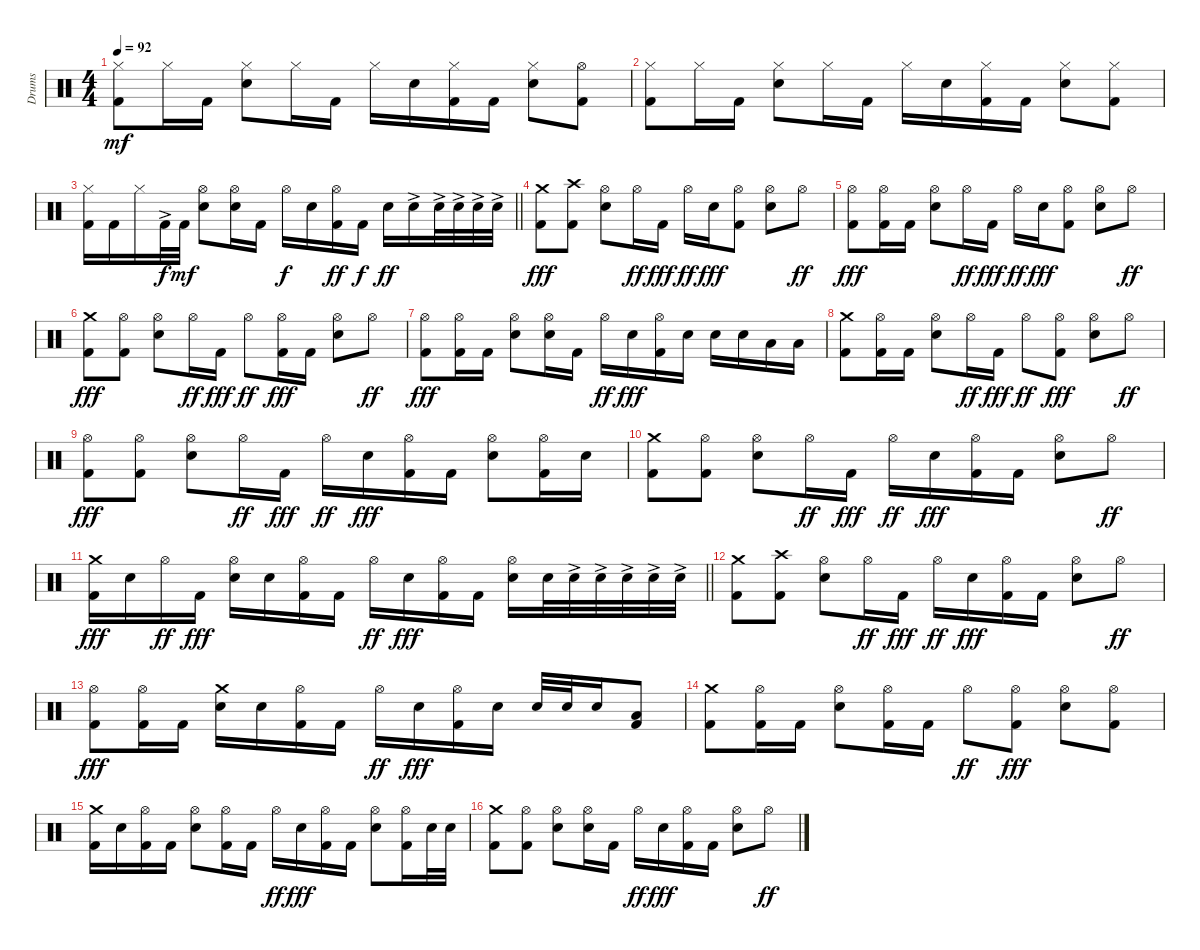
\track ("Drums" "Drums") {instrument percussion}
\staff {score}
\articulation defaults
\ts (4 4)
\tempo 92
\clef neutral
\ks c
("Hi-Hat (closed)" "Kick (hit) 2").8{dy mf} "Hi-Hat (closed)".16 "Kick (hit) 2".16 ("Hi-Hat (closed)" "Snare (hit) 2").8 "Hi-Hat (closed)".16 "Kick (hit) 2".16 "Hi-Hat (closed)".16 "Snare (hit) 2".16 ("Hi-Hat (closed)" "Kick (hit) 2").16 "Kick (hit) 2".16 ("Hi-Hat (closed)" "Snare (hit) 2").8 ("Hi-Hat (open)" "Kick (hit) 2").8 |
("Hi-Hat (closed)" "Kick (hit) 2").8 "Hi-Hat (closed)".16 "Kick (hit) 2".16 ("Hi-Hat (closed)" "Snare (hit) 2").8 "Hi-Hat (closed)".16 "Kick (hit) 2".16 "Hi-Hat (closed)".16 "Snare (hit) 2".16 ("Hi-Hat (closed)" "Kick (hit) 2").16 "Kick (hit) 2".16 ("Hi-Hat (closed)" "Snare (hit) 2").8 ("Hi-Hat (closed)" "Kick (hit) 2").8 |
\barLineRight lightlight
("Hi-Hat (closed)" "Kick (hit) 2").16 "Kick (hit) 2".16 "Hi-Hat (closed)".16 "Kick (hit) 2"{ac}.32{dy f} "Kick (hit) 2".32{dy mf} ("Hi-Hat (open)" "Snare (hit) 2").8 ("Hi-Hat (open)" "Snare (hit) 2").16 "Kick (hit) 2".16 "Hi-Hat (open)".16{dy f} "Snare (hit) 2".16 ("Hi-Hat (open)" "Kick (hit) 2").16{dy ff} "Kick (hit) 2".16{dy f} "Snare (hit) 2".16{dy ff} "Snare (hit) 2"{ac}.16 "Snare (hit) 2"{ac}.32 "Snare (hit) 2"{ac}.32 "Snare (hit) 2"{ac}.32 "Snare (hit) 2"{ac}.32 |
\section ("" "")
("Crash medium (hit)" "Kick (hit) 2").8{dy fff} ("Crash high (hit)" "Kick (hit) 2").8 ("Hi-Hat (open)" "Snare (hit) 2").8 "Hi-Hat (open)".16{dy ff} "Kick (hit) 2".16{dy fff} "Hi-Hat (open)".16{dy ff} "Snare (hit) 2".16{dy fff} ("Hi-Hat (open)" "Kick (hit) 2").8 ("Hi-Hat (open)" "Snare (hit) 2").8 "Hi-Hat (open)".8{dy ff} |
("Hi-Hat (open)" "Kick (hit) 2").8{dy fff} ("Hi-Hat (open)" "Kick (hit) 2").16 "Kick (hit) 2".16 ("Hi-Hat (open)" "Snare (hit) 2").8 "Hi-Hat (open)".16{dy ff} "Kick (hit) 2".16{dy fff} "Hi-Hat (open)".16{dy ff} "Snare (hit) 2".16{dy fff} ("Hi-Hat (open)" "Kick (hit) 2").8 ("Hi-Hat (open)" "Snare (hit) 2").8 "Hi-Hat (open)".8{dy ff} |
("Crash medium (hit)" "Kick (hit) 2").8{dy fff} ("Hi-Hat (open)" "Kick (hit) 2").8 ("Hi-Hat (open)" "Snare (hit) 2").8 "Hi-Hat (open)".16{dy ff} "Kick (hit) 2".16{dy fff} "Hi-Hat (open)".8{dy ff} ("Hi-Hat (open)" "Kick (hit) 2").16{dy fff} "Kick (hit) 2".16 ("Hi-Hat (open)" "Snare (hit) 2").8 "Hi-Hat (open)".8{dy ff} |
("Hi-Hat (open)" "Kick (hit) 2").8{dy fff} ("Hi-Hat (open)" "Kick (hit) 2").16 "Kick (hit) 2".16 ("Hi-Hat (open)" "Snare (hit) 2").8 ("Hi-Hat (open)" "Snare (hit) 2").16 "Kick (hit) 2".16 "Hi-Hat (open)".16{dy ff} "Snare (hit) 2".16{dy fff} ("Hi-Hat (open)" "Kick (hit) 2").16 "Snare (hit) 2".16 "Snare (hit) 2".16 "Snare (hit) 2".16 "Low Tom (hit)".16 "Low Tom (hit)".16 |
("Crash medium (hit)" "Kick (hit) 2").8 ("Hi-Hat (open)" "Kick (hit) 2").16 "Kick (hit) 2".16 ("Hi-Hat (open)" "Snare (hit) 2").8 "Hi-Hat (open)".16{dy ff} "Kick (hit) 2".16{dy fff} "Hi-Hat (open)".8{dy ff} ("Hi-Hat (open)" "Kick (hit) 2").8{dy fff} ("Hi-Hat (open)" "Snare (hit) 2").8 "Hi-Hat (open)".8{dy ff} |
("Hi-Hat (open)" "Kick (hit) 2").8{dy fff} ("Hi-Hat (open)" "Kick (hit) 2").8 ("Hi-Hat (open)" "Snare (hit) 2").8 "Hi-Hat (open)".16{dy ff} "Kick (hit) 2".16{dy fff} "Hi-Hat (open)".16{dy ff} "Snare (hit) 2".16{dy fff} ("Hi-Hat (open)" "Kick (hit) 2").16 "Kick (hit) 2".16 ("Hi-Hat (open)" "Snare (hit) 2").8 ("Hi-Hat (open)" "Kick (hit) 2").16 "Snare (hit) 2".16 |
("Crash medium (hit)" "Kick (hit) 2").8 ("Hi-Hat (open)" "Kick (hit) 2").8 ("Hi-Hat (open)" "Snare (hit) 2").8 "Hi-Hat (open)".16{dy ff} "Kick (hit) 2".16{dy fff} "Hi-Hat (open)".16{dy ff} "Snare (hit) 2".16{dy fff} ("Hi-Hat (open)" "Kick (hit) 2").16 "Kick (hit) 2".16 ("Hi-Hat (open)" "Snare (hit) 2").8 "Hi-Hat (open)".8{dy ff} |
\barLineRight lightlight
("Crash medium (hit)" "Kick (hit) 2").16{dy fff} "Snare (hit) 2".16 "Hi-Hat (open)".16{dy ff} "Kick (hit) 2".16{dy fff} ("Hi-Hat (open)" "Snare (hit) 2").16 "Snare (hit) 2".16 ("Hi-Hat (open)" "Kick (hit) 2").16 "Kick (hit) 2".16 "Hi-Hat (open)".16{dy ff} "Snare (hit) 2".16{dy fff} ("Hi-Hat (open)" "Kick (hit) 2").16 "Kick (hit) 2".16 ("Hi-Hat (open)" "Snare (hit) 2").16 "Snare (hit) 2".32 "Snare (hit) 2"{ac}.32 "Snare (hit) 2"{ac}.32 "Snare (hit) 2"{ac}.32 "Snare (hit) 2"{ac}.32 "Snare (hit) 2"{ac}.32 |
("Crash medium (hit)" "Kick (hit) 2").8 ("Crash high (hit)" "Kick (hit) 2").8 ("Hi-Hat (open)" "Snare (hit) 2").8 "Hi-Hat (open)".16{dy ff} "Kick (hit) 2".16{dy fff} "Hi-Hat (open)".16{dy ff} "Snare (hit) 2".16{dy fff} ("Hi-Hat (open)" "Kick (hit) 2").16 "Kick (hit) 2".16 ("Hi-Hat (open)" "Snare (hit) 2").8 "Hi-Hat (open)".8{dy ff} |
("Hi-Hat (open)" "Kick (hit) 2").8{dy fff} ("Hi-Hat (open)" "Kick (hit) 2").16 "Kick (hit) 2".16 ("Crash medium (hit)" "Snare (hit) 2").16 "Snare (hit) 2".16 ("Hi-Hat (open)" "Kick (hit) 2").16 "Kick (hit) 2".16 "Hi-Hat (open)".16{dy ff} "Snare (hit) 2".16{dy fff} ("Hi-Hat (open)" "Kick (hit) 2").16 "Snare (hit) 2".16 "Snare (hit) 2".32 "Snare (hit) 2".32 "Snare (hit) 2".16 ("Low Tom (hit)" "Kick (hit) 2").8 |
("Crash medium (hit)" "Kick (hit) 2").8 ("Hi-Hat (open)" "Kick (hit) 2").16 "Kick (hit) 2".16 ("Hi-Hat (open)" "Snare (hit) 2").8 ("Hi-Hat (open)" "Kick (hit) 2").16 "Kick (hit) 2".16 "Hi-Hat (open)".8{dy ff} ("Hi-Hat (open)" "Kick (hit) 2").8{dy fff} ("Hi-Hat (open)" "Snare (hit) 2").8 ("Hi-Hat (open)" "Kick (hit) 2").8 |
("Crash medium (hit)" "Kick (hit) 2").16 "Snare (hit) 2".16 ("Hi-Hat (open)" "Kick (hit) 2").16 "Kick (hit) 2".16 ("Hi-Hat (open)" "Snare (hit) 2").8 ("Hi-Hat (open)" "Kick (hit) 2").16 "Kick (hit) 2".16 "Hi-Hat (open)".16{dy ff} "Snare (hit) 2".16{dy fff} ("Hi-Hat (open)" "Kick (hit) 2").16 "Kick (hit) 2".16 ("Hi-Hat (open)" "Snare (hit) 2").8 ("Hi-Hat (open)" "Kick (hit) 2").16 "Snare (hit) 2".32 "Snare (hit) 2".32 |
("Crash medium (hit)" "Kick (hit) 2").8 ("Hi-Hat (open)" "Kick (hit) 2").8 ("Hi-Hat (open)" "Snare (hit) 2").8 ("Hi-Hat (open)" "Snare (hit) 2").16 "Kick (hit) 2".16 "Hi-Hat (open)".16{dy ff} "Snare (hit) 2".16{dy fff} ("Hi-Hat (open)" "Kick (hit) 2").16 "Kick (hit) 2".16 ("Hi-Hat (open)" "Snare (hit) 2").8 "Hi-Hat (open)".8{dy ff}
